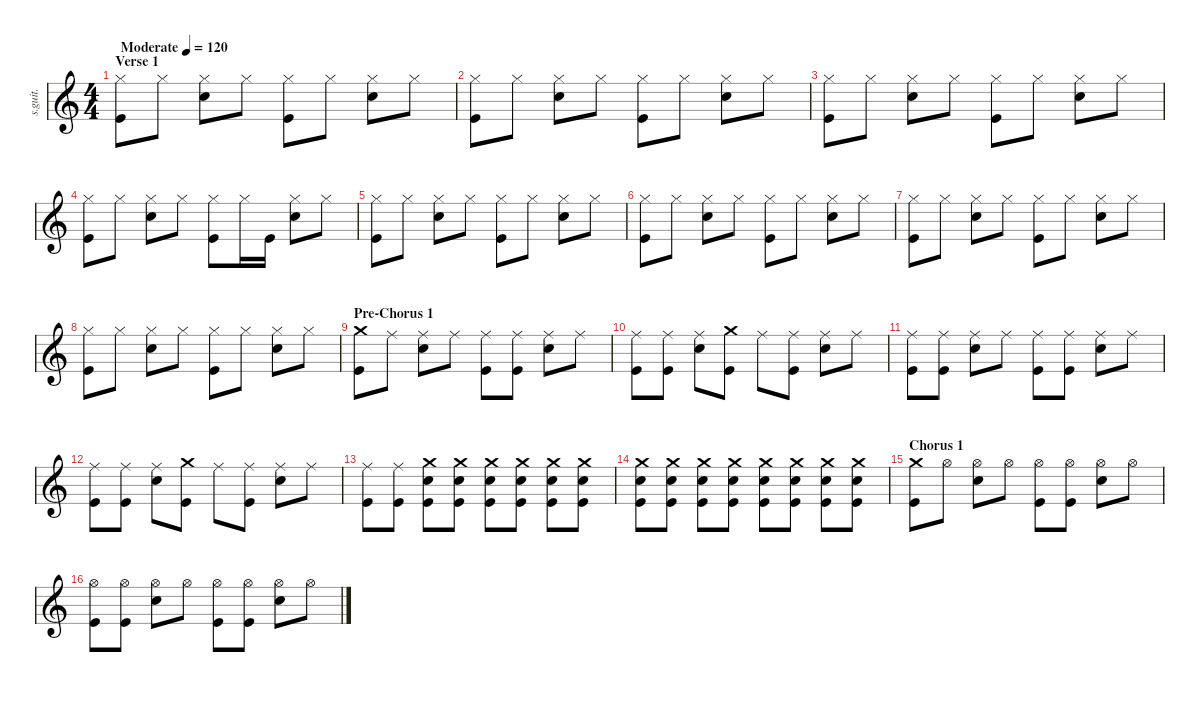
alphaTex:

\defaultSystemsLayout 4
\hideDynamics
\bracketExtendMode nobrackets
\track ("Patrick Wilson - Drums" "s.guit.") {instrument percussion}
\staff {score}
\articulation defaults
\ts (4 4)
\beaming (8 2 2 2 2)
\section ("" "Verse 1")
\tempo (120 "Moderate")
\clef g2
\ks c
("Hi-Hat (closed)" "Kick (hit)").8{lyrics (0 "") lyrics (1 "") lyrics (2 "") lyrics (3 "") lyrics (4 "") dy f} "Hi-Hat (closed)".8{lyrics (0 "") lyrics (1 "") lyrics (2 "") lyrics (3 "") lyrics (4 "")} ("Hi-Hat (closed)" "Snare (hit) 2").8{lyrics (0 "") lyrics (1 "") lyrics (2 "") lyrics (3 "") lyrics (4 "")} "Hi-Hat (closed)".8{lyrics (0 "") lyrics (1 "") lyrics (2 "") lyrics (3 "") lyrics (4 "")} ("Hi-Hat (closed)" "Kick (hit)").8{lyrics (0 "") lyrics (1 "") lyrics (2 "") lyrics (3 "") lyrics (4 "")} "Hi-Hat (closed)".8{lyrics (0 "") lyrics (1 "") lyrics (2 "") lyrics (3 "") lyrics (4 "")} ("Hi-Hat (closed)" "Snare (hit) 2").8{lyrics (0 "") lyrics (1 "") lyrics (2 "") lyrics (3 "") lyrics (4 "")} "Hi-Hat (closed)".8{lyrics (0 "") lyrics (1 "") lyrics (2 "") lyrics (3 "") lyrics (4 "")} |
("Hi-Hat (closed)" "Kick (hit)").8{lyrics (0 "") lyrics (1 "") lyrics (2 "") lyrics (3 "") lyrics (4 "")} "Hi-Hat (closed)".8{lyrics (0 "") lyrics (1 "") lyrics (2 "") lyrics (3 "") lyrics (4 "")} ("Hi-Hat (closed)" "Snare (hit) 2").8{lyrics (0 "") lyrics (1 "") lyrics (2 "") lyrics (3 "") lyrics (4 "")} "Hi-Hat (closed)".8{lyrics (0 "") lyrics (1 "") lyrics (2 "") lyrics (3 "") lyrics (4 "")} ("Hi-Hat (closed)" "Kick (hit)").8{lyrics (0 "") lyrics (1 "") lyrics (2 "") lyrics (3 "") lyrics (4 "")} "Hi-Hat (closed)".8{lyrics (0 "") lyrics (1 "") lyrics (2 "") lyrics (3 "") lyrics (4 "")} ("Hi-Hat (closed)" "Snare (hit) 2").8{lyrics (0 "") lyrics (1 "") lyrics (2 "") lyrics (3 "") lyrics (4 "")} "Hi-Hat (closed)".8{lyrics (0 "") lyrics (1 "") lyrics (2 "") lyrics (3 "") lyrics (4 "")} |
("Hi-Hat (closed)" "Kick (hit)").8{lyrics (0 "") lyrics (1 "") lyrics (2 "") lyrics (3 "") lyrics (4 "")} "Hi-Hat (closed)".8{lyrics (0 "") lyrics (1 "") lyrics (2 "") lyrics (3 "") lyrics (4 "")} ("Hi-Hat (closed)" "Snare (hit) 2").8{lyrics (0 "") lyrics (1 "") lyrics (2 "") lyrics (3 "") lyrics (4 "")} "Hi-Hat (closed)".8{lyrics (0 "") lyrics (1 "") lyrics (2 "") lyrics (3 "") lyrics (4 "")} ("Hi-Hat (closed)" "Kick (hit)").8{lyrics (0 "") lyrics (1 "") lyrics (2 "") lyrics (3 "") lyrics (4 "")} "Hi-Hat (closed)".8{lyrics (0 "") lyrics (1 "") lyrics (2 "") lyrics (3 "") lyrics (4 "")} ("Hi-Hat (closed)" "Snare (hit) 2").8{lyrics (0 "") lyrics (1 "") lyrics (2 "") lyrics (3 "") lyrics (4 "")} "Hi-Hat (closed)".8{lyrics (0 "") lyrics (1 "") lyrics (2 "") lyrics (3 "") lyrics (4 "")} |
("Hi-Hat (closed)" "Kick (hit)").8{lyrics (0 "") lyrics (1 "") lyrics (2 "") lyrics (3 "") lyrics (4 "")} "Hi-Hat (closed)".8{lyrics (0 "") lyrics (1 "") lyrics (2 "") lyrics (3 "") lyrics (4 "")} ("Hi-Hat (closed)" "Snare (hit) 2").8{lyrics (0 "") lyrics (1 "") lyrics (2 "") lyrics (3 "") lyrics (4 "")} "Hi-Hat (closed)".8{lyrics (0 "") lyrics (1 "") lyrics (2 "") lyrics (3 "") lyrics (4 "")} ("Hi-Hat (closed)" "Kick (hit)").8{lyrics (0 "") lyrics (1 "") lyrics (2 "") lyrics (3 "") lyrics (4 "")} "Hi-Hat (closed)".16{lyrics (0 "") lyrics (1 "") lyrics (2 "") lyrics (3 "") lyrics (4 "")} "Kick (hit)".16{lyrics (0 "") lyrics (1 "") lyrics (2 "") lyrics (3 "") lyrics (4 "")} ("Hi-Hat (closed)" "Snare (hit) 2").8{lyrics (0 "") lyrics (1 "") lyrics (2 "") lyrics (3 "") lyrics (4 "")} "Hi-Hat (closed)".8{lyrics (0 "") lyrics (1 "") lyrics (2 "") lyrics (3 "") lyrics (4 "")} |
("Hi-Hat (closed)" "Kick (hit)").8{lyrics (0 "") lyrics (1 "") lyrics (2 "") lyrics (3 "") lyrics (4 "")} "Hi-Hat (closed)".8{lyrics (0 "") lyrics (1 "") lyrics (2 "") lyrics (3 "") lyrics (4 "")} ("Hi-Hat (closed)" "Snare (hit) 2").8{lyrics (0 "") lyrics (1 "") lyrics (2 "") lyrics (3 "") lyrics (4 "")} "Hi-Hat (closed)".8{lyrics (0 "") lyrics (1 "") lyrics (2 "") lyrics (3 "") lyrics (4 "")} ("Hi-Hat (closed)" "Kick (hit)").8{lyrics (0 "") lyrics (1 "") lyrics (2 "") lyrics (3 "") lyrics (4 "")} "Hi-Hat (closed)".8{lyrics (0 "") lyrics (1 "") lyrics (2 "") lyrics (3 "") lyrics (4 "")} ("Hi-Hat (closed)" "Snare (hit) 2").8{lyrics (0 "") lyrics (1 "") lyrics (2 "") lyrics (3 "") lyrics (4 "")} "Hi-Hat (closed)".8{lyrics (0 "") lyrics (1 "") lyrics (2 "") lyrics (3 "") lyrics (4 "")} |
("Hi-Hat (closed)" "Kick (hit)").8{lyrics (0 "") lyrics (1 "") lyrics (2 "") lyrics (3 "") lyrics (4 "")} "Hi-Hat (closed)".8{lyrics (0 "") lyrics (1 "") lyrics (2 "") lyrics (3 "") lyrics (4 "")} ("Hi-Hat (closed)" "Snare (hit) 2").8{lyrics (0 "") lyrics (1 "") lyrics (2 "") lyrics (3 "") lyrics (4 "")} "Hi-Hat (closed)".8{lyrics (0 "") lyrics (1 "") lyrics (2 "") lyrics (3 "") lyrics (4 "")} ("Hi-Hat (closed)" "Kick (hit)").8{lyrics (0 "") lyrics (1 "") lyrics (2 "") lyrics (3 "") lyrics (4 "")} "Hi-Hat (closed)".8{lyrics (0 "") lyrics (1 "") lyrics (2 "") lyrics (3 "") lyrics (4 "")} ("Hi-Hat (closed)" "Snare (hit) 2").8{lyrics (0 "") lyrics (1 "") lyrics (2 "") lyrics (3 "") lyrics (4 "")} "Hi-Hat (closed)".8{lyrics (0 "") lyrics (1 "") lyrics (2 "") lyrics (3 "") lyrics (4 "")} |
("Hi-Hat (closed)" "Kick (hit)").8{lyrics (0 "") lyrics (1 "") lyrics (2 "") lyrics (3 "") lyrics (4 "")} "Hi-Hat (closed)".8{lyrics (0 "") lyrics (1 "") lyrics (2 "") lyrics (3 "") lyrics (4 "")} ("Hi-Hat (closed)" "Snare (hit) 2").8{lyrics (0 "") lyrics (1 "") lyrics (2 "") lyrics (3 "") lyrics (4 "")} "Hi-Hat (closed)".8{lyrics (0 "") lyrics (1 "") lyrics (2 "") lyrics (3 "") lyrics (4 "")} ("Hi-Hat (closed)" "Kick (hit)").8{lyrics (0 "") lyrics (1 "") lyrics (2 "") lyrics (3 "") lyrics (4 "")} "Hi-Hat (closed)".8{lyrics (0 "") lyrics (1 "") lyrics (2 "") lyrics (3 "") lyrics (4 "")} ("Hi-Hat (closed)" "Snare (hit) 2").8{lyrics (0 "") lyrics (1 "") lyrics (2 "") lyrics (3 "") lyrics (4 "")} "Hi-Hat (closed)".8{lyrics (0 "") lyrics (1 "") lyrics (2 "") lyrics (3 "") lyrics (4 "")} |
("Hi-Hat (closed)" "Kick (hit)").8{lyrics (0 "") lyrics (1 "") lyrics (2 "") lyrics (3 "") lyrics (4 "")} "Hi-Hat (closed)".8{lyrics (0 "") lyrics (1 "") lyrics (2 "") lyrics (3 "") lyrics (4 "")} ("Hi-Hat (closed)" "Snare (hit) 2").8{lyrics (0 "") lyrics (1 "") lyrics (2 "") lyrics (3 "") lyrics (4 "")} "Hi-Hat (closed)".8{lyrics (0 "") lyrics (1 "") lyrics (2 "") lyrics (3 "") lyrics (4 "")} ("Hi-Hat (closed)" "Kick (hit)").8{lyrics (0 "") lyrics (1 "") lyrics (2 "") lyrics (3 "") lyrics (4 "")} "Hi-Hat (closed)".8{lyrics (0 "") lyrics (1 "") lyrics (2 "") lyrics (3 "") lyrics (4 "")} ("Hi-Hat (closed)" "Snare (hit) 2").8{lyrics (0 "") lyrics (1 "") lyrics (2 "") lyrics (3 "") lyrics (4 "")} "Hi-Hat (closed)".8{lyrics (0 "") lyrics (1 "") lyrics (2 "") lyrics (3 "") lyrics (4 "")} |
\section ("" "Pre-Chorus 1")
("Crash medium (hit)" "Kick (hit)").8{lyrics (0 "") lyrics (1 "") lyrics (2 "") lyrics (3 "") lyrics (4 "")} "Ride (middle)".8{lyrics (0 "") lyrics (1 "") lyrics (2 "") lyrics (3 "") lyrics (4 "")} ("Ride (middle)" "Snare (hit) 2").8{lyrics (0 "") lyrics (1 "") lyrics (2 "") lyrics (3 "") lyrics (4 "")} "Ride (middle)".8{lyrics (0 "") lyrics (1 "") lyrics (2 "") lyrics (3 "") lyrics (4 "")} ("Ride (middle)" "Kick (hit)").8{lyrics (0 "") lyrics (1 "") lyrics (2 "") lyrics (3 "") lyrics (4 "")} ("Ride (middle)" "Kick (hit)").8{lyrics (0 "") lyrics (1 "") lyrics (2 "") lyrics (3 "") lyrics (4 "")} ("Ride (middle)" "Snare (hit) 2").8{lyrics (0 "") lyrics (1 "") lyrics (2 "") lyrics (3 "") lyrics (4 "")} "Ride (middle)".8{lyrics (0 "") lyrics (1 "") lyrics (2 "") lyrics (3 "") lyrics (4 "")} |
("Ride (middle)" "Kick (hit)").8{lyrics (0 "") lyrics (1 "") lyrics (2 "") lyrics (3 "") lyrics (4 "")} ("Ride (middle)" "Kick (hit)").8{lyrics (0 "") lyrics (1 "") lyrics (2 "") lyrics (3 "") lyrics (4 "")} ("Ride (middle)" "Snare (hit) 2").8{lyrics (0 "") lyrics (1 "") lyrics (2 "") lyrics (3 "") lyrics (4 "")} ("Crash medium (hit)" "Kick (hit)").8{lyrics (0 "") lyrics (1 "") lyrics (2 "") lyrics (3 "") lyrics (4 "")} "Ride (middle)".8{lyrics (0 "") lyrics (1 "") lyrics (2 "") lyrics (3 "") lyrics (4 "")} ("Ride (middle)" "Kick (hit)").8{lyrics (0 "") lyrics (1 "") lyrics (2 "") lyrics (3 "") lyrics (4 "")} ("Ride (middle)" "Snare (hit) 2").8{lyrics (0 "") lyrics (1 "") lyrics (2 "") lyrics (3 "") lyrics (4 "")} "Ride (middle)".8{lyrics (0 "") lyrics (1 "") lyrics (2 "") lyrics (3 "") lyrics (4 "")} |
("Ride (middle)" "Kick (hit)").8{lyrics (0 "") lyrics (1 "") lyrics (2 "") lyrics (3 "") lyrics (4 "")} ("Ride (middle)" "Kick (hit)").8{lyrics (0 "") lyrics (1 "") lyrics (2 "") lyrics (3 "") lyrics (4 "")} ("Ride (middle)" "Snare (hit) 2").8{lyrics (0 "") lyrics (1 "") lyrics (2 "") lyrics (3 "") lyrics (4 "")} "Ride (middle)".8{lyrics (0 "") lyrics (1 "") lyrics (2 "") lyrics (3 "") lyrics (4 "")} ("Ride (middle)" "Kick (hit)").8{lyrics (0 "") lyrics (1 "") lyrics (2 "") lyrics (3 "") lyrics (4 "")} ("Ride (middle)" "Kick (hit)").8{lyrics (0 "") lyrics (1 "") lyrics (2 "") lyrics (3 "") lyrics (4 "")} ("Ride (middle)" "Snare (hit) 2").8{lyrics (0 "") lyrics (1 "") lyrics (2 "") lyrics (3 "") lyrics (4 "")} "Ride (middle)".8{lyrics (0 "") lyrics (1 "") lyrics (2 "") lyrics (3 "") lyrics (4 "")} |
("Ride (middle)" "Kick (hit)").8{lyrics (0 "") lyrics (1 "") lyrics (2 "") lyrics (3 "") lyrics (4 "")} ("Ride (middle)" "Kick (hit)").8{lyrics (0 "") lyrics (1 "") lyrics (2 "") lyrics (3 "") lyrics (4 "")} ("Ride (middle)" "Snare (hit) 2").8{lyrics (0 "") lyrics (1 "") lyrics (2 "") lyrics (3 "") lyrics (4 "")} ("Crash medium (hit)" "Kick (hit)").8{lyrics (0 "") lyrics (1 "") lyrics (2 "") lyrics (3 "") lyrics (4 "")} "Ride (middle)".8{lyrics (0 "") lyrics (1 "") lyrics (2 "") lyrics (3 "") lyrics (4 "")} ("Ride (middle)" "Kick (hit)").8{lyrics (0 "") lyrics (1 "") lyrics (2 "") lyrics (3 "") lyrics (4 "")} ("Ride (middle)" "Snare (hit) 2").8{lyrics (0 "") lyrics (1 "") lyrics (2 "") lyrics (3 "") lyrics (4 "")} "Ride (middle)".8{lyrics (0 "") lyrics (1 "") lyrics (2 "") lyrics (3 "") lyrics (4 "")} |
("Ride (middle)" "Kick (hit)").8{lyrics (0 "") lyrics (1 "") lyrics (2 "") lyrics (3 "") lyrics (4 "")} ("Ride (middle)" "Kick (hit)").8{lyrics (0 "") lyrics (1 "") lyrics (2 "") lyrics (3 "") lyrics (4 "")} ("Crash medium (hit)" "Snare (hit) 2" "Kick (hit)").8{lyrics (0 "") lyrics (1 "") lyrics (2 "") lyrics (3 "") lyrics (4 "")} ("Crash medium (hit)" "Snare (hit) 2" "Kick (hit)").8{lyrics (0 "") lyrics (1 "") lyrics (2 "") lyrics (3 "") lyrics (4 "")} ("Crash medium (hit)" "Snare (hit) 2" "Kick (hit)").8{lyrics (0 "") lyrics (1 "") lyrics (2 "") lyrics (3 "") lyrics (4 "")} ("Crash medium (hit)" "Snare (hit) 2" "Kick (hit)").8{lyrics (0 "") lyrics (1 "") lyrics (2 "") lyrics (3 "") lyrics (4 "")} ("Crash medium (hit)" "Snare (hit) 2" "Kick (hit)").8{lyrics (0 "") lyrics (1 "") lyrics (2 "") lyrics (3 "") lyrics (4 "")} ("Crash medium (hit)" "Snare (hit) 2" "Kick (hit)").8{lyrics (0 "") lyrics (1 "") lyrics (2 "") lyrics (3 "") lyrics (4 "")} |
("Crash medium (hit)" "Snare (hit) 2" "Kick (hit)").8{lyrics (0 "") lyrics (1 "") lyrics (2 "") lyrics (3 "") lyrics (4 "")} ("Crash medium (hit)" "Snare (hit) 2" "Kick (hit)").8{lyrics (0 "") lyrics (1 "") lyrics (2 "") lyrics (3 "") lyrics (4 "")} ("Crash medium (hit)" "Snare (hit) 2" "Kick (hit)").8{lyrics (0 "") lyrics (1 "") lyrics (2 "") lyrics (3 "") lyrics (4 "")} ("Crash medium (hit)" "Snare (hit) 2" "Kick (hit)").8{lyrics (0 "") lyrics (1 "") lyrics (2 "") lyrics (3 "") lyrics (4 "")} ("Crash medium (hit)" "Snare (hit) 2" "Kick (hit)").8{lyrics (0 "") lyrics (1 "") lyrics (2 "") lyrics (3 "") lyrics (4 "")} ("Crash medium (hit)" "Snare (hit) 2" "Kick (hit)").8{lyrics (0 "") lyrics (1 "") lyrics (2 "") lyrics (3 "") lyrics (4 "")} ("Crash medium (hit)" "Snare (hit) 2" "Kick (hit)").8{lyrics (0 "") lyrics (1 "") lyrics (2 "") lyrics (3 "") lyrics (4 "")} ("Crash medium (hit)" "Snare (hit) 2" "Kick (hit)").8{lyrics (0 "") lyrics (1 "") lyrics (2 "") lyrics (3 "") lyrics (4 "")} |
\section ("" "Chorus 1")
("Crash medium (hit)" "Kick (hit)").8{lyrics (0 "") lyrics (1 "") lyrics (2 "") lyrics (3 "") lyrics (4 "")} "Hi-Hat (open)".8{lyrics (0 "") lyrics (1 "") lyrics (2 "") lyrics (3 "") lyrics (4 "")} ("Hi-Hat (open)" "Snare (hit) 2").8{lyrics (0 "") lyrics (1 "") lyrics (2 "") lyrics (3 "") lyrics (4 "")} "Hi-Hat (open)".8{lyrics (0 "") lyrics (1 "") lyrics (2 "") lyrics (3 "") lyrics (4 "")} ("Hi-Hat (open)" "Kick (hit)").8{lyrics (0 "") lyrics (1 "") lyrics (2 "") lyrics (3 "") lyrics (4 "")} ("Hi-Hat (open)" "Kick (hit)").8{lyrics (0 "") lyrics (1 "") lyrics (2 "") lyrics (3 "") lyrics (4 "")} ("Hi-Hat (open)" "Snare (hit) 2").8{lyrics (0 "") lyrics (1 "") lyrics (2 "") lyrics (3 "") lyrics (4 "")} "Hi-Hat (open)".8{lyrics (0 "") lyrics (1 "") lyrics (2 "") lyrics (3 "") lyrics (4 "")} |
("Hi-Hat (open)" "Kick (hit)").8{lyrics (0 "") lyrics (1 "") lyrics (2 "") lyrics (3 "") lyrics (4 "")} ("Hi-Hat (open)" "Kick (hit)").8{lyrics (0 "") lyrics (1 "") lyrics (2 "") lyrics (3 "") lyrics (4 "")} ("Hi-Hat (open)" "Snare (hit) 2").8{lyrics (0 "") lyrics (1 "") lyrics (2 "") lyrics (3 "") lyrics (4 "")} "Hi-Hat (open)".8{lyrics (0 "") lyrics (1 "") lyrics (2 "") lyrics (3 "") lyrics (4 "")} ("Hi-Hat (open)" "Kick (hit)").8{lyrics (0 "") lyrics (1 "") lyrics (2 "") lyrics (3 "") lyrics (4 "")} ("Hi-Hat (open)" "Kick (hit)").8{lyrics (0 "") lyrics (1 "") lyrics (2 "") lyrics (3 "") lyrics (4 "")} ("Hi-Hat (open)" "Snare (hit) 2").8{lyrics (0 "") lyrics (1 "") lyrics (2 "") lyrics (3 "") lyrics (4 "")} "Hi-Hat (open)".8{lyrics (0 "") lyrics (1 "") lyrics (2 "") lyrics (3 "") lyrics (4 "")}
